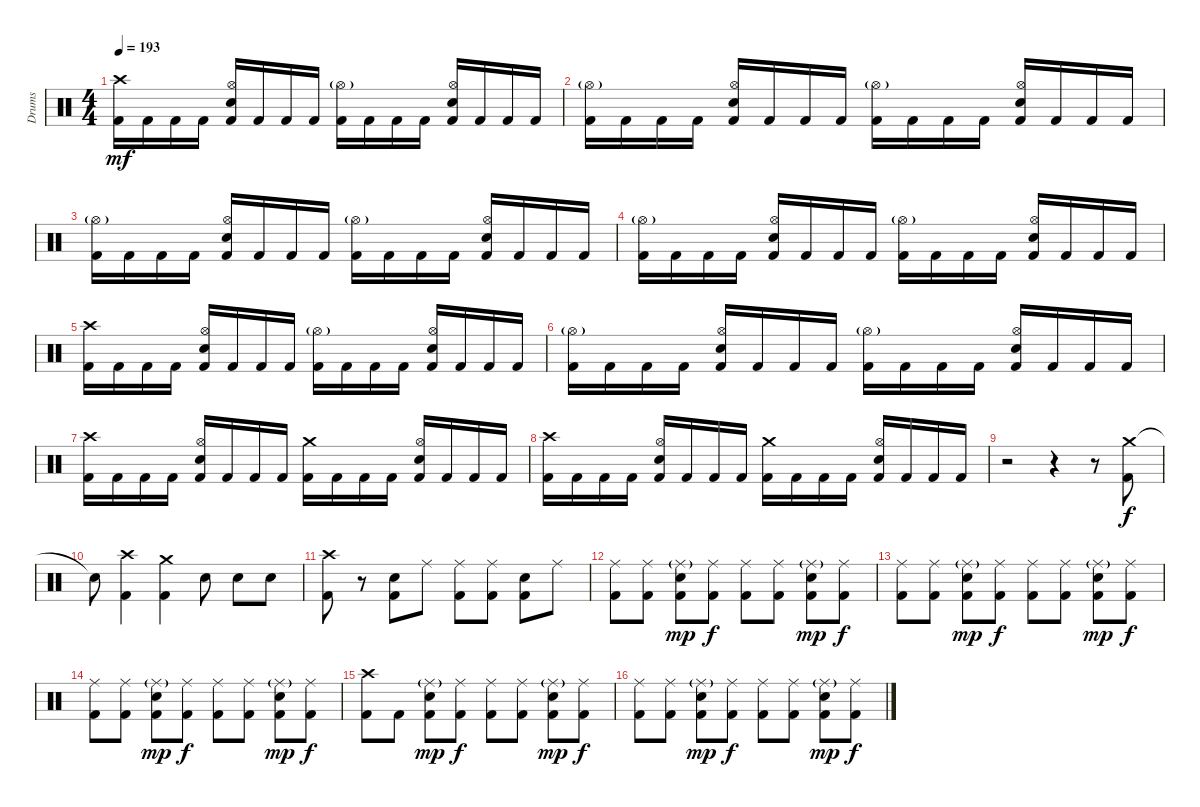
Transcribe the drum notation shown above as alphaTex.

\track ("Drums" "Drums") {instrument percussion}
\staff {score}
\articulation defaults
\ts (4 4)
\tempo 193
\clef neutral
\ks c
("Crash high (hit)" "Kick (hit) 2").16{dy mf} "Kick (hit) 2".16 "Kick (hit) 2".16 "Kick (hit) 2".16 ("Hi-Hat (open)" "Electric Snare (hit)" "Kick (hit) 2").16 "Kick (hit) 2".16 "Kick (hit) 2".16 "Kick (hit) 2".16 ("Hi-Hat (open)"{g} "Kick (hit) 2").16 "Kick (hit) 2".16 "Kick (hit) 2".16 "Kick (hit) 2".16 ("Hi-Hat (open)" "Electric Snare (hit)" "Kick (hit) 2").16 "Kick (hit) 2".16 "Kick (hit) 2".16 "Kick (hit) 2".16 |
("Hi-Hat (open)"{g} "Kick (hit) 2").16 "Kick (hit) 2".16 "Kick (hit) 2".16 "Kick (hit) 2".16 ("Hi-Hat (open)" "Electric Snare (hit)" "Kick (hit) 2").16 "Kick (hit) 2".16 "Kick (hit) 2".16 "Kick (hit) 2".16 ("Hi-Hat (open)"{g} "Kick (hit) 2").16 "Kick (hit) 2".16 "Kick (hit) 2".16 "Kick (hit) 2".16 ("Hi-Hat (open)" "Electric Snare (hit)" "Kick (hit) 2").16 "Kick (hit) 2".16 "Kick (hit) 2".16 "Kick (hit) 2".16 |
("Hi-Hat (open)"{g} "Kick (hit) 2").16 "Kick (hit) 2".16 "Kick (hit) 2".16 "Kick (hit) 2".16 ("Hi-Hat (open)" "Electric Snare (hit)" "Kick (hit) 2").16 "Kick (hit) 2".16 "Kick (hit) 2".16 "Kick (hit) 2".16 ("Hi-Hat (open)"{g} "Kick (hit) 2").16 "Kick (hit) 2".16 "Kick (hit) 2".16 "Kick (hit) 2".16 ("Hi-Hat (open)" "Electric Snare (hit)" "Kick (hit) 2").16 "Kick (hit) 2".16 "Kick (hit) 2".16 "Kick (hit) 2".16 |
("Hi-Hat (open)"{g} "Kick (hit) 2").16 "Kick (hit) 2".16 "Kick (hit) 2".16 "Kick (hit) 2".16 ("Hi-Hat (open)" "Electric Snare (hit)" "Kick (hit) 2").16 "Kick (hit) 2".16 "Kick (hit) 2".16 "Kick (hit) 2".16 ("Hi-Hat (open)"{g} "Kick (hit) 2").16 "Kick (hit) 2".16 "Kick (hit) 2".16 "Kick (hit) 2".16 ("Hi-Hat (open)" "Electric Snare (hit)" "Kick (hit) 2").16 "Kick (hit) 2".16 "Kick (hit) 2".16 "Kick (hit) 2".16 |
("Crash high (hit)" "Kick (hit) 2").16 "Kick (hit) 2".16 "Kick (hit) 2".16 "Kick (hit) 2".16 ("Hi-Hat (open)" "Electric Snare (hit)" "Kick (hit) 2").16 "Kick (hit) 2".16 "Kick (hit) 2".16 "Kick (hit) 2".16 ("Hi-Hat (open)"{g} "Kick (hit) 2").16 "Kick (hit) 2".16 "Kick (hit) 2".16 "Kick (hit) 2".16 ("Hi-Hat (open)" "Electric Snare (hit)" "Kick (hit) 2").16 "Kick (hit) 2".16 "Kick (hit) 2".16 "Kick (hit) 2".16 |
("Hi-Hat (open)"{g} "Kick (hit) 2").16 "Kick (hit) 2".16 "Kick (hit) 2".16 "Kick (hit) 2".16 ("Hi-Hat (open)" "Electric Snare (hit)" "Kick (hit) 2").16 "Kick (hit) 2".16 "Kick (hit) 2".16 "Kick (hit) 2".16 ("Hi-Hat (open)"{g} "Kick (hit) 2").16 "Kick (hit) 2".16 "Kick (hit) 2".16 "Kick (hit) 2".16 ("Hi-Hat (open)" "Electric Snare (hit)" "Kick (hit) 2").16 "Kick (hit) 2".16 "Kick (hit) 2".16 "Kick (hit) 2".16 |
("Crash high (hit)" "Kick (hit) 2").16 "Kick (hit) 2".16 "Kick (hit) 2".16 "Kick (hit) 2".16 ("Hi-Hat (open)" "Electric Snare (hit)" "Kick (hit) 2").16 "Kick (hit) 2".16 "Kick (hit) 2".16 "Kick (hit) 2".16 ("Crash medium (hit)" "Kick (hit) 2").16 "Kick (hit) 2".16 "Kick (hit) 2".16 "Kick (hit) 2".16 ("Hi-Hat (open)" "Electric Snare (hit)" "Kick (hit) 2").16 "Kick (hit) 2".16 "Kick (hit) 2".16 "Kick (hit) 2".16 |
("Crash high (hit)" "Kick (hit) 2").16 "Kick (hit) 2".16 "Kick (hit) 2".16 "Kick (hit) 2".16 ("Hi-Hat (open)" "Electric Snare (hit)" "Kick (hit) 2").16 "Kick (hit) 2".16 "Kick (hit) 2".16 "Kick (hit) 2".16 ("Crash medium (hit)" "Kick (hit) 2").16 "Kick (hit) 2".16 "Kick (hit) 2".16 "Kick (hit) 2".16 ("Hi-Hat (open)" "Electric Snare (hit)" "Kick (hit) 2").16 "Kick (hit) 2".16 "Kick (hit) 2".16 "Kick (hit) 2".16 |
r.2 r.4 r.8 ("Crash medium (hit)" "Kick (hit) 2").8{dy f} |
"Snare (hit)"{t}.8 ("Crash high (hit)" "Kick (hit) 2").4 ("Crash medium (hit)" "Kick (hit) 2").4 "Electric Snare (hit)".8 "Electric Snare (hit)".8 "Electric Snare (hit)".8 |
("Crash high (hit)" "Kick (hit) 2").8 r.8 ("Electric Snare (hit)" "Kick (hit) 2").8 "Ride (middle)".8 ("Ride (middle)" "Kick (hit) 2").8 ("Ride (middle)" "Kick (hit) 2").8 ("Electric Snare (hit)" "Kick (hit) 2").8 "Ride (middle)".8 |
("Ride (middle)" "Kick (hit) 2").8 ("Ride (middle)" "Kick (hit) 2").8 ("Ride (middle)"{g} "Electric Snare (hit)" "Kick (hit) 2").8{dy mp} ("Ride (middle)" "Kick (hit) 2").8{dy f} ("Ride (middle)" "Kick (hit) 2").8 ("Ride (middle)" "Kick (hit) 2").8 ("Ride (middle)"{g} "Electric Snare (hit)" "Kick (hit) 2").8{dy mp} ("Ride (middle)" "Kick (hit) 2").8{dy f} |
("Ride (middle)" "Kick (hit) 2").8 ("Ride (middle)" "Kick (hit) 2").8 ("Ride (middle)"{g} "Electric Snare (hit)" "Kick (hit) 2").8{dy mp} ("Ride (middle)" "Kick (hit) 2").8{dy f} ("Ride (middle)" "Kick (hit) 2").8 ("Ride (middle)" "Kick (hit) 2").8 ("Ride (middle)"{g} "Electric Snare (hit)" "Kick (hit) 2").8{dy mp} ("Ride (middle)" "Kick (hit) 2").8{dy f} |
("Ride (middle)" "Kick (hit) 2").8 ("Ride (middle)" "Kick (hit) 2").8 ("Ride (middle)"{g} "Electric Snare (hit)" "Kick (hit) 2").8{dy mp} ("Ride (middle)" "Kick (hit) 2").8{dy f} ("Ride (middle)" "Kick (hit) 2").8 ("Ride (middle)" "Kick (hit) 2").8 ("Ride (middle)"{g} "Electric Snare (hit)" "Kick (hit) 2").8{dy mp} ("Ride (middle)" "Kick (hit) 2").8{dy f} |
("Crash high (hit)" "Kick (hit) 2").8 "Kick (hit) 2".8 ("Ride (middle)"{g} "Electric Snare (hit)" "Kick (hit) 2").8{dy mp} ("Ride (middle)" "Kick (hit) 2").8{dy f} ("Ride (middle)" "Kick (hit) 2").8 ("Ride (middle)" "Kick (hit) 2").8 ("Ride (middle)"{g} "Electric Snare (hit)" "Kick (hit) 2").8{dy mp} ("Ride (middle)" "Kick (hit) 2").8{dy f} |
("Ride (middle)" "Kick (hit) 2").8 ("Ride (middle)" "Kick (hit) 2").8 ("Ride (middle)"{g} "Electric Snare (hit)" "Kick (hit) 2").8{dy mp} ("Ride (middle)" "Kick (hit) 2").8{dy f} ("Ride (middle)" "Kick (hit) 2").8 ("Ride (middle)" "Kick (hit) 2").8 ("Ride (middle)"{g} "Electric Snare (hit)" "Kick (hit) 2").8{dy mp} ("Ride (middle)" "Kick (hit) 2").8{dy f}
